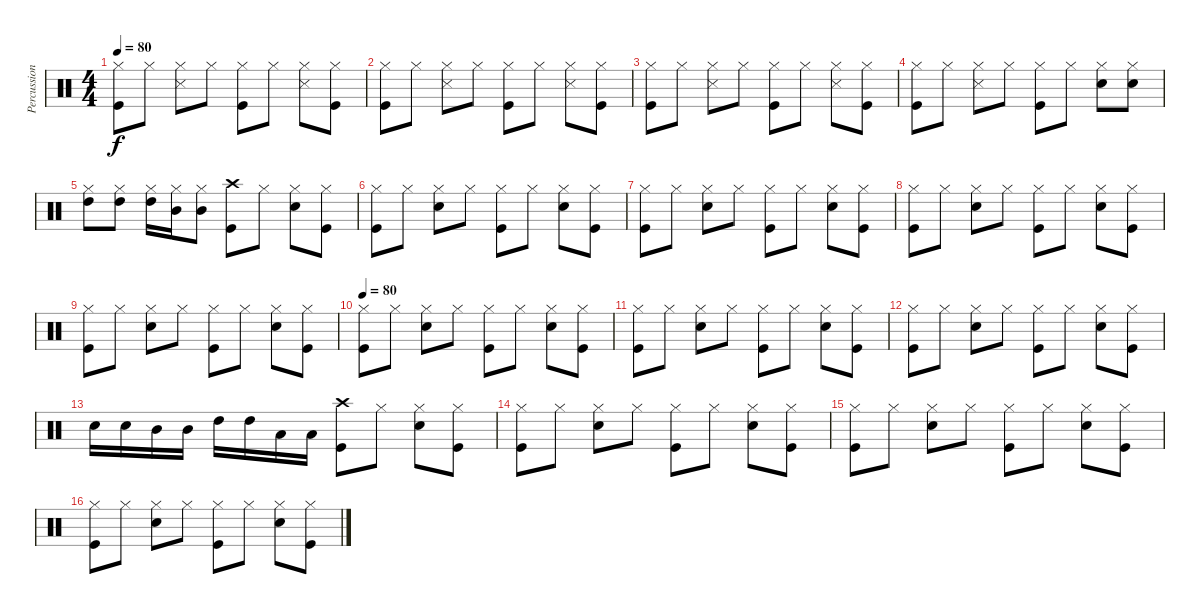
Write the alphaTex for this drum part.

\track ("Percussion" "Percussion") {instrument percussion}
\staff {score}
\articulation defaults
\ts (4 4)
\tempo 80
\clef neutral
\ks c
("Hi-Hat (closed)" "Kick (hit)").8{dy f} "Hi-Hat (closed)".8 ("Hi-Hat (closed)" "Snare (side stick) 3").8 "Hi-Hat (closed)".8 ("Hi-Hat (closed)" "Kick (hit)").8 "Hi-Hat (closed)".8 ("Hi-Hat (closed)" "Snare (side stick) 3").8 ("Hi-Hat (closed)" "Kick (hit)").8 |
("Hi-Hat (closed)" "Kick (hit)").8 "Hi-Hat (closed)".8 ("Hi-Hat (closed)" "Snare (side stick) 3").8 "Hi-Hat (closed)".8 ("Hi-Hat (closed)" "Kick (hit)").8 "Hi-Hat (closed)".8 ("Hi-Hat (closed)" "Snare (side stick) 3").8 ("Hi-Hat (closed)" "Kick (hit)").8 |
("Hi-Hat (closed)" "Kick (hit)").8 "Hi-Hat (closed)".8 ("Hi-Hat (closed)" "Snare (side stick) 3").8 "Hi-Hat (closed)".8 ("Hi-Hat (closed)" "Kick (hit)").8 "Hi-Hat (closed)".8 ("Hi-Hat (closed)" "Snare (side stick) 3").8 ("Hi-Hat (closed)" "Kick (hit)").8 |
("Hi-Hat (closed)" "Kick (hit)").8 "Hi-Hat (closed)".8 ("Hi-Hat (closed)" "Snare (side stick) 3").8 "Hi-Hat (closed)".8 ("Hi-Hat (closed)" "Kick (hit)").8 "Hi-Hat (closed)".8 ("Hi-Hat (closed)" "Electric Snare (hit)").8 ("Hi-Hat (closed)" "Electric Snare (hit)").8 |
("Hi-Hat (closed)" "High Tom (hit)").8 ("Hi-Hat (closed)" "High Tom (hit)").8 ("Hi-Hat (closed)" "High Tom (hit)").16 ("Hi-Hat (closed)" "Mid Tom (hit)").16 ("Hi-Hat (closed)" "Mid Tom (hit)").8 ("Crash high (hit)" "Kick (hit)").8{volume 10} "Hi-Hat (closed)".8{volume 12} ("Hi-Hat (closed)" "Electric Snare (hit)").8 ("Hi-Hat (closed)" "Kick (hit)").8 |
("Hi-Hat (closed)" "Kick (hit)").8 "Hi-Hat (closed)".8 ("Hi-Hat (closed)" "Electric Snare (hit)").8 "Hi-Hat (closed)".8 ("Hi-Hat (closed)" "Kick (hit)").8 "Hi-Hat (closed)".8 ("Hi-Hat (closed)" "Electric Snare (hit)").8 ("Hi-Hat (closed)" "Kick (hit)").8 |
("Hi-Hat (closed)" "Kick (hit)").8 "Hi-Hat (closed)".8 ("Hi-Hat (closed)" "Electric Snare (hit)").8 "Hi-Hat (closed)".8 ("Hi-Hat (closed)" "Kick (hit)").8 "Hi-Hat (closed)".8 ("Hi-Hat (closed)" "Electric Snare (hit)").8 ("Hi-Hat (closed)" "Kick (hit)").8 |
("Hi-Hat (closed)" "Kick (hit)").8 "Hi-Hat (closed)".8 ("Hi-Hat (closed)" "Electric Snare (hit)").8 "Hi-Hat (closed)".8 ("Hi-Hat (closed)" "Kick (hit)").8 "Hi-Hat (closed)".8 ("Hi-Hat (closed)" "Electric Snare (hit)").8 ("Hi-Hat (closed)" "Kick (hit)").8 |
("Hi-Hat (closed)" "Kick (hit)").8 "Hi-Hat (closed)".8 ("Hi-Hat (closed)" "Electric Snare (hit)").8 "Hi-Hat (closed)".8 ("Hi-Hat (closed)" "Kick (hit)").8 "Hi-Hat (closed)".8 ("Hi-Hat (closed)" "Electric Snare (hit)").8 ("Hi-Hat (closed)" "Kick (hit)").8 |
\tempo 80
("Hi-Hat (closed)" "Kick (hit)").8 "Hi-Hat (closed)".8 ("Hi-Hat (closed)" "Electric Snare (hit)").8 "Hi-Hat (closed)".8 ("Hi-Hat (closed)" "Kick (hit)").8 "Hi-Hat (closed)".8 ("Hi-Hat (closed)" "Electric Snare (hit)").8 ("Hi-Hat (closed)" "Kick (hit)").8 |
("Hi-Hat (closed)" "Kick (hit)").8 "Hi-Hat (closed)".8 ("Hi-Hat (closed)" "Electric Snare (hit)").8 "Hi-Hat (closed)".8 ("Hi-Hat (closed)" "Kick (hit)").8 "Hi-Hat (closed)".8 ("Hi-Hat (closed)" "Electric Snare (hit)").8 ("Hi-Hat (closed)" "Kick (hit)").8 |
("Hi-Hat (closed)" "Kick (hit)").8 "Hi-Hat (closed)".8 ("Hi-Hat (closed)" "Electric Snare (hit)").8 "Hi-Hat (closed)".8 ("Hi-Hat (closed)" "Kick (hit)").8 "Hi-Hat (closed)".8 ("Hi-Hat (closed)" "Electric Snare (hit)").8 ("Hi-Hat (closed)" "Kick (hit)").8 |
"Electric Snare (hit)".16 "Electric Snare (hit)".16 "Mid Tom (hit)".16 "Mid Tom (hit)".16 "High Tom (hit)".16 "High Tom (hit)".16 "Low Tom (hit)".16 "Low Tom (hit)".16 ("Kick (hit)" "Crash high (hit)").8 "Hi-Hat (closed)".8 ("Hi-Hat (closed)" "Electric Snare (hit)").8 ("Hi-Hat (closed)" "Kick (hit)").8 |
("Hi-Hat (closed)" "Kick (hit)").8 "Hi-Hat (closed)".8 ("Hi-Hat (closed)" "Electric Snare (hit)").8 "Hi-Hat (closed)".8 ("Hi-Hat (closed)" "Kick (hit)").8 "Hi-Hat (closed)".8 ("Hi-Hat (closed)" "Electric Snare (hit)").8 ("Hi-Hat (closed)" "Kick (hit)").8 |
("Hi-Hat (closed)" "Kick (hit)").8 "Hi-Hat (closed)".8 ("Hi-Hat (closed)" "Electric Snare (hit)").8 "Hi-Hat (closed)".8 ("Hi-Hat (closed)" "Kick (hit)").8 "Hi-Hat (closed)".8 ("Hi-Hat (closed)" "Electric Snare (hit)").8 ("Hi-Hat (closed)" "Kick (hit)").8 |
("Hi-Hat (closed)" "Kick (hit)").8 "Hi-Hat (closed)".8 ("Hi-Hat (closed)" "Electric Snare (hit)").8 "Hi-Hat (closed)".8 ("Hi-Hat (closed)" "Kick (hit)").8 "Hi-Hat (closed)".8 ("Hi-Hat (closed)" "Electric Snare (hit)").8 ("Hi-Hat (closed)" "Kick (hit)").8
